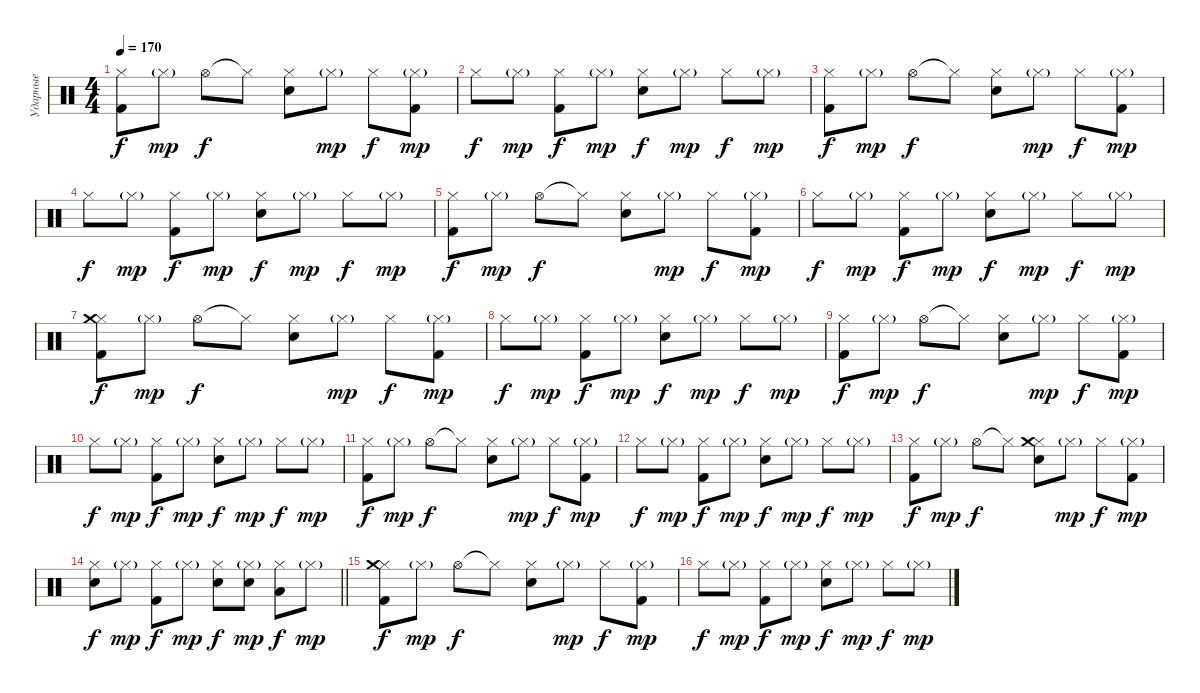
\track ("Ударные" "Ударные") {instrument percussion}
\staff {score}
\articulation defaults
\ts (4 4)
\tempo 170
\clef neutral
\ks c
("Kick (hit) 2" "Hi-Hat (closed)").8{dy f} "Hi-Hat (closed)"{g}.8{dy mp} "Hi-Hat (open)".8{dy f} "Hi-Hat (closed)"{t}.8 ("Electric Snare (hit)" "Hi-Hat (closed)").8 "Hi-Hat (closed)"{g}.8{dy mp} "Hi-Hat (closed)".8{dy f} ("Kick (hit) 2" "Hi-Hat (closed)"{g}).8{dy mp} |
"Hi-Hat (closed)".8{dy f} "Hi-Hat (closed)"{g}.8{dy mp} ("Kick (hit) 2" "Hi-Hat (closed)").8{dy f} "Hi-Hat (closed)"{g}.8{dy mp} ("Electric Snare (hit)" "Hi-Hat (closed)").8{dy f} "Hi-Hat (closed)"{g}.8{dy mp} "Hi-Hat (closed)".8{dy f} "Hi-Hat (closed)"{g}.8{dy mp} |
("Kick (hit) 2" "Hi-Hat (closed)").8{dy f} "Hi-Hat (closed)"{g}.8{dy mp} "Hi-Hat (open)".8{dy f} "Hi-Hat (closed)"{t}.8 ("Electric Snare (hit)" "Hi-Hat (closed)").8 "Hi-Hat (closed)"{g}.8{dy mp} "Hi-Hat (closed)".8{dy f} ("Kick (hit) 2" "Hi-Hat (closed)"{g}).8{dy mp} |
"Hi-Hat (closed)".8{dy f} "Hi-Hat (closed)"{g}.8{dy mp} ("Kick (hit) 2" "Hi-Hat (closed)").8{dy f} "Hi-Hat (closed)"{g}.8{dy mp} ("Electric Snare (hit)" "Hi-Hat (closed)").8{dy f} "Hi-Hat (closed)"{g}.8{dy mp} "Hi-Hat (closed)".8{dy f} "Hi-Hat (closed)"{g}.8{dy mp} |
("Kick (hit) 2" "Hi-Hat (closed)").8{dy f} "Hi-Hat (closed)"{g}.8{dy mp} "Hi-Hat (open)".8{dy f} "Hi-Hat (closed)"{t}.8 ("Electric Snare (hit)" "Hi-Hat (closed)").8 "Hi-Hat (closed)"{g}.8{dy mp} "Hi-Hat (closed)".8{dy f} ("Kick (hit) 2" "Hi-Hat (closed)"{g}).8{dy mp} |
"Hi-Hat (closed)".8{dy f} "Hi-Hat (closed)"{g}.8{dy mp} ("Kick (hit) 2" "Hi-Hat (closed)").8{dy f} "Hi-Hat (closed)"{g}.8{dy mp} ("Electric Snare (hit)" "Hi-Hat (closed)").8{dy f} "Hi-Hat (closed)"{g}.8{dy mp} "Hi-Hat (closed)".8{dy f} "Hi-Hat (closed)"{g}.8{dy mp} |
("Kick (hit) 2" "Hi-Hat (closed)" "Crash medium (hit)").8{dy f} "Hi-Hat (closed)"{g}.8{dy mp} "Hi-Hat (open)".8{dy f} "Hi-Hat (closed)"{t}.8 ("Electric Snare (hit)" "Hi-Hat (closed)").8 "Hi-Hat (closed)"{g}.8{dy mp} "Hi-Hat (closed)".8{dy f} ("Kick (hit) 2" "Hi-Hat (closed)"{g}).8{dy mp} |
"Hi-Hat (closed)".8{dy f} "Hi-Hat (closed)"{g}.8{dy mp} ("Kick (hit) 2" "Hi-Hat (closed)").8{dy f} "Hi-Hat (closed)"{g}.8{dy mp} ("Electric Snare (hit)" "Hi-Hat (closed)").8{dy f} "Hi-Hat (closed)"{g}.8{dy mp} "Hi-Hat (closed)".8{dy f} "Hi-Hat (closed)"{g}.8{dy mp} |
("Kick (hit) 2" "Hi-Hat (closed)").8{dy f} "Hi-Hat (closed)"{g}.8{dy mp} "Hi-Hat (open)".8{dy f} "Hi-Hat (closed)"{t}.8 ("Electric Snare (hit)" "Hi-Hat (closed)").8 "Hi-Hat (closed)"{g}.8{dy mp} "Hi-Hat (closed)".8{dy f} ("Kick (hit) 2" "Hi-Hat (closed)"{g}).8{dy mp} |
"Hi-Hat (closed)".8{dy f} "Hi-Hat (closed)"{g}.8{dy mp} ("Kick (hit) 2" "Hi-Hat (closed)").8{dy f} "Hi-Hat (closed)"{g}.8{dy mp} ("Electric Snare (hit)" "Hi-Hat (closed)").8{dy f} "Hi-Hat (closed)"{g}.8{dy mp} "Hi-Hat (closed)".8{dy f} "Hi-Hat (closed)"{g}.8{dy mp} |
("Kick (hit) 2" "Hi-Hat (closed)").8{dy f} "Hi-Hat (closed)"{g}.8{dy mp} "Hi-Hat (open)".8{dy f} "Hi-Hat (closed)"{t}.8 ("Electric Snare (hit)" "Hi-Hat (closed)").8 "Hi-Hat (closed)"{g}.8{dy mp} "Hi-Hat (closed)".8{dy f} ("Kick (hit) 2" "Hi-Hat (closed)"{g}).8{dy mp} |
"Hi-Hat (closed)".8{dy f} "Hi-Hat (closed)"{g}.8{dy mp} ("Kick (hit) 2" "Hi-Hat (closed)").8{dy f} "Hi-Hat (closed)"{g}.8{dy mp} ("Electric Snare (hit)" "Hi-Hat (closed)").8{dy f} "Hi-Hat (closed)"{g}.8{dy mp} "Hi-Hat (closed)".8{dy f} "Hi-Hat (closed)"{g}.8{dy mp} |
("Kick (hit) 2" "Hi-Hat (closed)").8{dy f} "Hi-Hat (closed)"{g}.8{dy mp} "Hi-Hat (open)".8{dy f} "Hi-Hat (closed)"{t}.8 ("Electric Snare (hit)" "Hi-Hat (closed)" "Crash medium (hit)").8 "Hi-Hat (closed)"{g}.8{dy mp} "Hi-Hat (closed)".8{dy f} ("Kick (hit) 2" "Hi-Hat (closed)"{g}).8{dy mp} |
\barLineRight lightlight
("Electric Snare (hit)" "Hi-Hat (closed)").8{dy f} "Hi-Hat (closed)"{g}.8{dy mp} ("Kick (hit) 2" "Hi-Hat (closed)").8{dy f} "Hi-Hat (closed)"{g}.8{dy mp} ("Electric Snare (hit)" "Hi-Hat (closed)").8{dy f} ("Electric Snare (hit)" "Hi-Hat (closed)"{g}).8{dy mp} ("Low Floor Tom (hit)" "Hi-Hat (closed)").8{dy f} "Hi-Hat (closed)"{g}.8{dy mp} |
("Kick (hit) 2" "Hi-Hat (closed)" "Crash medium (hit)").8{dy f} "Hi-Hat (closed)"{g}.8{dy mp} "Hi-Hat (open)".8{dy f} "Hi-Hat (closed)"{t}.8 ("Electric Snare (hit)" "Hi-Hat (closed)").8 "Hi-Hat (closed)"{g}.8{dy mp} "Hi-Hat (closed)".8{dy f} ("Kick (hit) 2" "Hi-Hat (closed)"{g}).8{dy mp} |
"Hi-Hat (closed)".8{dy f} "Hi-Hat (closed)"{g}.8{dy mp} ("Kick (hit) 2" "Hi-Hat (closed)").8{dy f} "Hi-Hat (closed)"{g}.8{dy mp} ("Electric Snare (hit)" "Hi-Hat (closed)").8{dy f} "Hi-Hat (closed)"{g}.8{dy mp} "Hi-Hat (closed)".8{dy f} "Hi-Hat (closed)"{g}.8{dy mp}
